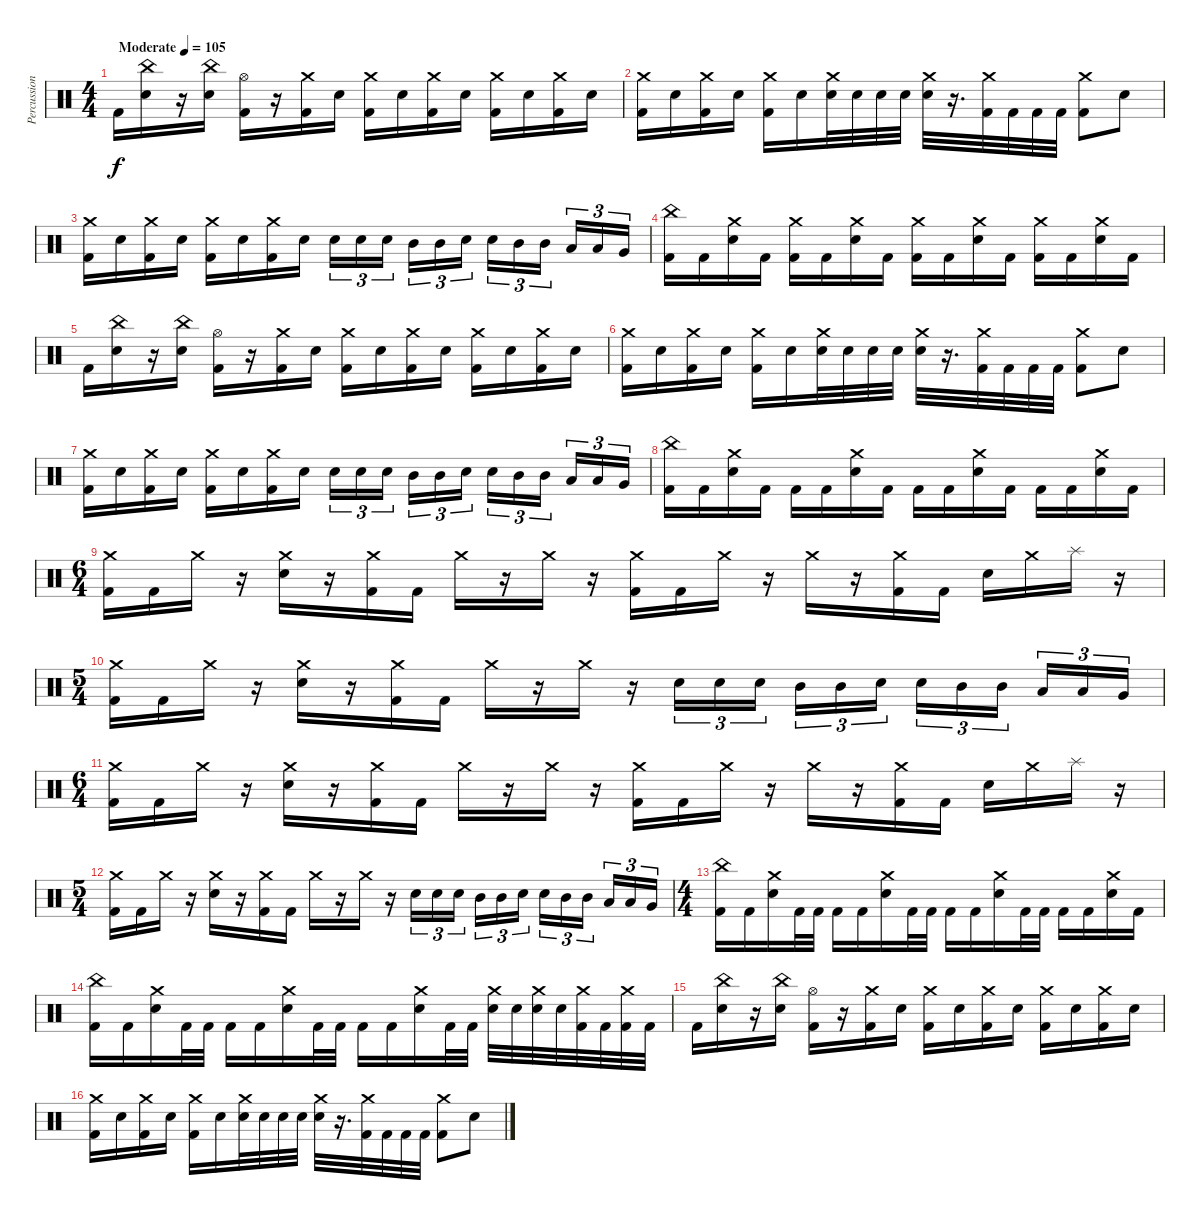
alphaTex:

\track ("Percussion" "Percussion") {instrument percussion}
\staff {score}
\articulation defaults
\ts (4 4)
\tempo (105 "Moderate")
\clef neutral
\ks c "Kick (hit) 2".16{dy f}
("China (hit)" "Electric Snare (hit)").16 r.16 ("China (hit)" "Electric Snare (hit)").16 ("Hi-Hat (open)" "Kick (hit) 2").16 r.16 ("Crash medium (hit)" "Kick (hit) 2").16 "Electric Snare (hit)".16 ("Crash medium (hit)" "Kick (hit) 2").16 "Electric Snare (hit)".16 ("Crash medium (hit)" "Kick (hit) 2").16 "Electric Snare (hit)".16 ("Crash medium (hit)" "Kick (hit) 2").16 "Electric Snare (hit)".16 ("Crash medium (hit)" "Kick (hit) 2").16 "Electric Snare (hit)".16 |
("Crash medium (hit)" "Kick (hit) 2").16 "Electric Snare (hit)".16 ("Crash medium (hit)" "Kick (hit) 2").16 "Electric Snare (hit)".16 ("Crash medium (hit)" "Kick (hit) 2").16 "Electric Snare (hit)".16 ("Crash medium (hit)" "Electric Snare (hit)").32 "Electric Snare (hit)".32 "Electric Snare (hit)".32 "Electric Snare (hit)".32 ("Crash medium (hit)" "Electric Snare (hit)").32 r.16{d} ("Crash medium (hit)" "Kick (hit) 2").32 "Kick (hit) 2".32 "Kick (hit) 2".32 "Kick (hit) 2".32 ("Crash medium (hit)" "Kick (hit) 2").8 "Electric Snare (hit)".8 |
("Crash medium (hit)" "Kick (hit) 2").16 "Electric Snare (hit)".16 ("Crash medium (hit)" "Kick (hit) 2").16 "Electric Snare (hit)".16 ("Crash medium (hit)" "Kick (hit) 2").16 "Electric Snare (hit)".16 ("Crash medium (hit)" "Kick (hit) 2").16 "Electric Snare (hit)".16 "Electric Snare (hit)".16{tu (3 2)} "Electric Snare (hit)".16{tu (3 2)} "Electric Snare (hit)".16{tu (3 2) beam splitsecondary} "Mid Tom (hit)".16{tu (3 2)} "Mid Tom (hit)".16{tu (3 2)} "Electric Snare (hit)".16{tu (3 2)} "Electric Snare (hit)".16{tu (3 2)} "Mid Tom (hit)".16{tu (3 2)} "Mid Tom (hit)".16{tu (3 2) beam splitsecondary} "Low Tom (hit)".16{tu (3 2)} "Low Tom (hit)".16{tu (3 2)} "Very Low Tom (hit)".16{tu (3 2)} |
("China (hit)" "Kick (hit) 2").16 "Kick (hit) 2".16 ("Crash medium (hit)" "Electric Snare (hit)").16 "Kick (hit) 2".16 ("Crash medium (hit)" "Kick (hit) 2").16 "Kick (hit) 2".16 ("Crash medium (hit)" "Electric Snare (hit)").16 "Kick (hit) 2".16 ("Crash medium (hit)" "Kick (hit) 2").16 "Kick (hit) 2".16 ("Crash medium (hit)" "Electric Snare (hit)").16 "Kick (hit) 2".16 ("Crash medium (hit)" "Kick (hit) 2").16 "Kick (hit) 2".16 ("Crash medium (hit)" "Electric Snare (hit)").16 "Kick (hit) 2".16 |
"Kick (hit) 2".16 ("China (hit)" "Electric Snare (hit)").16 r.16 ("China (hit)" "Electric Snare (hit)").16 ("Hi-Hat (open)" "Kick (hit) 2").16 r.16 ("Crash medium (hit)" "Kick (hit) 2").16 "Electric Snare (hit)".16 ("Crash medium (hit)" "Kick (hit) 2").16 "Electric Snare (hit)".16 ("Crash medium (hit)" "Kick (hit) 2").16 "Electric Snare (hit)".16 ("Crash medium (hit)" "Kick (hit) 2").16 "Electric Snare (hit)".16 ("Crash medium (hit)" "Kick (hit) 2").16 "Electric Snare (hit)".16 |
("Crash medium (hit)" "Kick (hit) 2").16 "Electric Snare (hit)".16 ("Crash medium (hit)" "Kick (hit) 2").16 "Electric Snare (hit)".16 ("Crash medium (hit)" "Kick (hit) 2").16 "Electric Snare (hit)".16 ("Crash medium (hit)" "Electric Snare (hit)").32 "Electric Snare (hit)".32 "Electric Snare (hit)".32 "Electric Snare (hit)".32 ("Crash medium (hit)" "Electric Snare (hit)").32 r.16{d} ("Crash medium (hit)" "Kick (hit) 2").32 "Kick (hit) 2".32 "Kick (hit) 2".32 "Kick (hit) 2".32 ("Crash medium (hit)" "Kick (hit) 2").8 "Electric Snare (hit)".8 |
("Crash medium (hit)" "Kick (hit) 2").16 "Electric Snare (hit)".16 ("Crash medium (hit)" "Kick (hit) 2").16 "Electric Snare (hit)".16 ("Crash medium (hit)" "Kick (hit) 2").16 "Electric Snare (hit)".16 ("Crash medium (hit)" "Kick (hit) 2").16 "Electric Snare (hit)".16 "Electric Snare (hit)".16{tu (3 2)} "Electric Snare (hit)".16{tu (3 2)} "Electric Snare (hit)".16{tu (3 2) beam splitsecondary} "Mid Tom (hit)".16{tu (3 2)} "Mid Tom (hit)".16{tu (3 2)} "Electric Snare (hit)".16{tu (3 2)} "Electric Snare (hit)".16{tu (3 2)} "Mid Tom (hit)".16{tu (3 2)} "Mid Tom (hit)".16{tu (3 2) beam splitsecondary} "Low Tom (hit)".16{tu (3 2)} "Low Tom (hit)".16{tu (3 2)} "Very Low Tom (hit)".16{tu (3 2)} |
("China (hit)" "Kick (hit) 2").16 "Kick (hit) 2".16 ("Crash medium (hit)" "Electric Snare (hit)").16 "Kick (hit) 2".16 "Kick (hit) 2".16 "Kick (hit) 2".16 ("Crash medium (hit)" "Electric Snare (hit)").16 "Kick (hit) 2".16 "Kick (hit) 2".16 "Kick (hit) 2".16 ("Crash medium (hit)" "Electric Snare (hit)").16 "Kick (hit) 2".16 "Kick (hit) 2".16 "Kick (hit) 2".16 ("Crash medium (hit)" "Electric Snare (hit)").16 "Kick (hit) 2".16 |
\ts (6 4)
("Crash medium (hit)" "Kick (hit) 2").16 "Kick (hit) 2".16 "Crash medium (hit)".16 r.16 ("Crash medium (hit)" "Electric Snare (hit)").16 r.16 ("Crash medium (hit)" "Kick (hit) 2").16 "Kick (hit) 2".16 "Crash medium (hit)".16 r.16 "Crash medium (hit)".16 r.16 ("Crash medium (hit)" "Kick (hit) 2").16 "Kick (hit) 2".16 "Crash medium (hit)".16 r.16 "Crash medium (hit)".16 r.16 ("Crash medium (hit)" "Kick (hit) 2").16 "Kick (hit) 2".16 "Electric Snare (hit)".16 "Crash medium (hit)".16 "Splash (hit)".16 r.16 |
\ts (5 4)
("Crash medium (hit)" "Kick (hit) 2").16 "Kick (hit) 2".16 "Crash medium (hit)".16 r.16 ("Crash medium (hit)" "Electric Snare (hit)").16 r.16 ("Crash medium (hit)" "Kick (hit) 2").16 "Kick (hit) 2".16 "Crash medium (hit)".16 r.16 "Crash medium (hit)".16 r.16 "Electric Snare (hit)".16{tu (3 2)} "Electric Snare (hit)".16{tu (3 2)} "Electric Snare (hit)".16{tu (3 2) beam splitsecondary} "Mid Tom (hit)".16{tu (3 2)} "Mid Tom (hit)".16{tu (3 2)} "Electric Snare (hit)".16{tu (3 2)} "Electric Snare (hit)".16{tu (3 2)} "Mid Tom (hit)".16{tu (3 2)} "Mid Tom (hit)".16{tu (3 2) beam splitsecondary} "Low Tom (hit)".16{tu (3 2)} "Low Tom (hit)".16{tu (3 2)} "Very Low Tom (hit)".16{tu (3 2)} |
\ts (6 4)
("Crash medium (hit)" "Kick (hit) 2").16 "Kick (hit) 2".16 "Crash medium (hit)".16 r.16 ("Crash medium (hit)" "Electric Snare (hit)").16 r.16 ("Crash medium (hit)" "Kick (hit) 2").16 "Kick (hit) 2".16 "Crash medium (hit)".16 r.16 "Crash medium (hit)".16 r.16 ("Crash medium (hit)" "Kick (hit) 2").16 "Kick (hit) 2".16 "Crash medium (hit)".16 r.16 "Crash medium (hit)".16 r.16 ("Crash medium (hit)" "Kick (hit) 2").16 "Kick (hit) 2".16 "Electric Snare (hit)".16 "Crash medium (hit)".16 "Splash (hit)".16 r.16 |
\ts (5 4)
("Crash medium (hit)" "Kick (hit) 2").16 "Kick (hit) 2".16 "Crash medium (hit)".16 r.16 ("Crash medium (hit)" "Electric Snare (hit)").16 r.16 ("Crash medium (hit)" "Kick (hit) 2").16 "Kick (hit) 2".16 "Crash medium (hit)".16 r.16 "Crash medium (hit)".16 r.16 "Electric Snare (hit)".16{tu (3 2)} "Electric Snare (hit)".16{tu (3 2)} "Electric Snare (hit)".16{tu (3 2) beam splitsecondary} "Mid Tom (hit)".16{tu (3 2)} "Mid Tom (hit)".16{tu (3 2)} "Electric Snare (hit)".16{tu (3 2)} "Electric Snare (hit)".16{tu (3 2)} "Mid Tom (hit)".16{tu (3 2)} "Mid Tom (hit)".16{tu (3 2) beam splitsecondary} "Low Tom (hit)".16{tu (3 2)} "Low Tom (hit)".16{tu (3 2)} "Very Low Tom (hit)".16{tu (3 2)} |
\ts (4 4)
("China (hit)" "Kick (hit) 2").16 "Kick (hit) 2".16 ("Crash medium (hit)" "Electric Snare (hit)").16 "Kick (hit) 2".32 "Kick (hit) 2".32 "Kick (hit) 2".16 "Kick (hit) 2".16 ("Crash medium (hit)" "Electric Snare (hit)").16 "Kick (hit) 2".32 "Kick (hit) 2".32 "Kick (hit) 2".16 "Kick (hit) 2".16 ("Crash medium (hit)" "Electric Snare (hit)").16 "Kick (hit) 2".32 "Kick (hit) 2".32 "Kick (hit) 2".16 "Kick (hit) 2".16 ("Crash medium (hit)" "Electric Snare (hit)").16 "Kick (hit) 2".16 |
("China (hit)" "Kick (hit) 2").16 "Kick (hit) 2".16 ("Crash medium (hit)" "Electric Snare (hit)").16 "Kick (hit) 2".32 "Kick (hit) 2".32 "Kick (hit) 2".16 "Kick (hit) 2".16 ("Crash medium (hit)" "Electric Snare (hit)").16 "Kick (hit) 2".32 "Kick (hit) 2".32 "Kick (hit) 2".16 "Kick (hit) 2".16 ("Crash medium (hit)" "Electric Snare (hit)").16 "Kick (hit) 2".32 "Kick (hit) 2".32 ("Crash medium (hit)" "Electric Snare (hit)").32 "Electric Snare (hit)".32 ("Crash medium (hit)" "Electric Snare (hit)").32 "Electric Snare (hit)".32 ("Crash medium (hit)" "Kick (hit) 2").32 "Kick (hit) 2".32 ("Crash medium (hit)" "Kick (hit) 2").32 "Kick (hit) 2".32 |
"Kick (hit) 2".16 ("China (hit)" "Electric Snare (hit)").16 r.16 ("China (hit)" "Electric Snare (hit)").16 ("Hi-Hat (open)" "Kick (hit) 2").16 r.16 ("Crash medium (hit)" "Kick (hit) 2").16 "Electric Snare (hit)".16 ("Crash medium (hit)" "Kick (hit) 2").16 "Electric Snare (hit)".16 ("Crash medium (hit)" "Kick (hit) 2").16 "Electric Snare (hit)".16 ("Crash medium (hit)" "Kick (hit) 2").16 "Electric Snare (hit)".16 ("Crash medium (hit)" "Kick (hit) 2").16 "Electric Snare (hit)".16 |
("Crash medium (hit)" "Kick (hit) 2").16 "Electric Snare (hit)".16 ("Crash medium (hit)" "Kick (hit) 2").16 "Electric Snare (hit)".16 ("Crash medium (hit)" "Kick (hit) 2").16 "Electric Snare (hit)".16 ("Crash medium (hit)" "Electric Snare (hit)").32 "Electric Snare (hit)".32 "Electric Snare (hit)".32 "Electric Snare (hit)".32 ("Crash medium (hit)" "Electric Snare (hit)").32 r.16{d} ("Crash medium (hit)" "Kick (hit) 2").32 "Kick (hit) 2".32 "Kick (hit) 2".32 "Kick (hit) 2".32 ("Crash medium (hit)" "Kick (hit) 2").8 "Electric Snare (hit)".8
